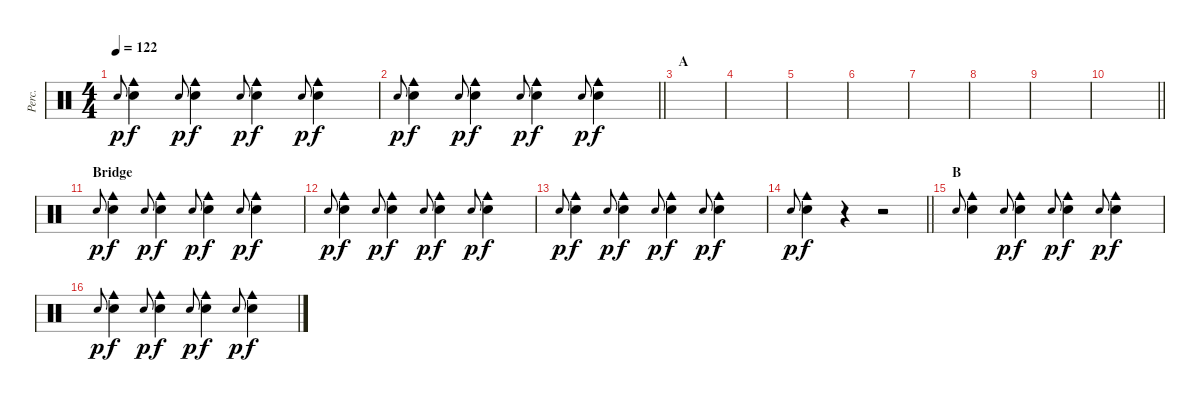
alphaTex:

\track ("Perc." "Perc.") {instrument percussion}
\staff {score}
\articulation defaults
\ts (4 4)
\tempo 122
\clef neutral
\ks c "Hand Clap (hit)".8{gr onbeat dy p}
("Hand Clap (hit)" "Cowbell medium (hit)").4{dy f} "Hand Clap (hit)".8{gr onbeat dy p} ("Hand Clap (hit)" "Cowbell medium (hit)").4{dy f} "Hand Clap (hit)".8{gr onbeat dy p} ("Hand Clap (hit)" "Cowbell medium (hit)").4{dy f} "Hand Clap (hit)".8{gr onbeat dy p} ("Hand Clap (hit)" "Cowbell medium (hit)").4{dy f} |
\barLineRight lightlight "Hand Clap (hit)".8{gr onbeat dy p}
("Hand Clap (hit)" "Cowbell medium (hit)").4{dy f} "Hand Clap (hit)".8{gr onbeat dy p} ("Hand Clap (hit)" "Cowbell medium (hit)").4{dy f} "Hand Clap (hit)".8{gr onbeat dy p} ("Hand Clap (hit)" "Cowbell medium (hit)").4{dy f} "Hand Clap (hit)".8{gr onbeat dy p} ("Hand Clap (hit)" "Cowbell medium (hit)").4{dy f} |
\section ("" "A")
|
|
|
|
|
|
|
\barLineRight lightlight
|
\section ("" "Bridge")
"Hand Clap (hit)".8{gr onbeat dy p} ("Hand Clap (hit)" "Cowbell medium (hit)").4{dy f} "Hand Clap (hit)".8{gr onbeat dy p} ("Hand Clap (hit)" "Cowbell medium (hit)").4{dy f} "Hand Clap (hit)".8{gr onbeat dy p} ("Hand Clap (hit)" "Cowbell medium (hit)").4{dy f} "Hand Clap (hit)".8{gr onbeat dy p} ("Hand Clap (hit)" "Cowbell medium (hit)").4{dy f} |
"Hand Clap (hit)".8{gr onbeat dy p} ("Hand Clap (hit)" "Cowbell medium (hit)").4{dy f} "Hand Clap (hit)".8{gr onbeat dy p} ("Hand Clap (hit)" "Cowbell medium (hit)").4{dy f} "Hand Clap (hit)".8{gr onbeat dy p} ("Hand Clap (hit)" "Cowbell medium (hit)").4{dy f} "Hand Clap (hit)".8{gr onbeat dy p} ("Hand Clap (hit)" "Cowbell medium (hit)").4{dy f} |
"Hand Clap (hit)".8{gr onbeat dy p} ("Hand Clap (hit)" "Cowbell medium (hit)").4{dy f} "Hand Clap (hit)".8{gr onbeat dy p} ("Hand Clap (hit)" "Cowbell medium (hit)").4{dy f} "Hand Clap (hit)".8{gr onbeat dy p} ("Hand Clap (hit)" "Cowbell medium (hit)").4{dy f} "Hand Clap (hit)".8{gr onbeat dy p} ("Hand Clap (hit)" "Cowbell medium (hit)").4{dy f} |
\barLineRight lightlight "Hand Clap (hit)".8{gr onbeat dy p}
("Hand Clap (hit)" "Cowbell medium (hit)").4{dy f} r.4 r.2 |
\section ("" "B")
"Hand Clap (hit)".8{gr onbeat} ("Hand Clap (hit)" "Cowbell medium (hit)").4 "Hand Clap (hit)".8{gr onbeat dy p} ("Hand Clap (hit)" "Cowbell medium (hit)").4{dy f} "Hand Clap (hit)".8{gr onbeat dy p} ("Hand Clap (hit)" "Cowbell medium (hit)").4{dy f} "Hand Clap (hit)".8{gr onbeat dy p} ("Hand Clap (hit)" "Cowbell medium (hit)").4{dy f} |
"Hand Clap (hit)".8{gr onbeat dy p} ("Hand Clap (hit)" "Cowbell medium (hit)").4{dy f} "Hand Clap (hit)".8{gr onbeat dy p} ("Hand Clap (hit)" "Cowbell medium (hit)").4{dy f} "Hand Clap (hit)".8{gr onbeat dy p} ("Hand Clap (hit)" "Cowbell medium (hit)").4{dy f} "Hand Clap (hit)".8{gr onbeat dy p} ("Hand Clap (hit)" "Cowbell medium (hit)").4{dy f}
